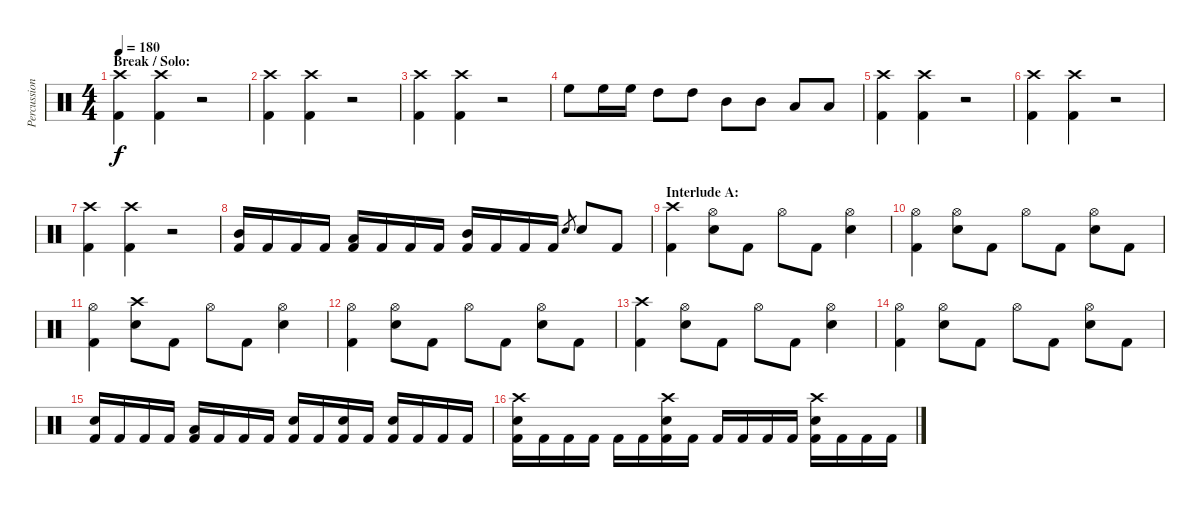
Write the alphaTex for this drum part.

\track ("Percussion" "Percussion") {instrument percussion}
\staff {score}
\articulation defaults
\ts (4 4)
\section ("" "Break / Solo:")
\tempo 180
\clef neutral
\ks c
("Crash high (hit)" "Kick (hit) 2").4{dy f} ("Crash high (hit)" "Kick (hit) 2").4 r.2 |
("Crash high (hit)" "Kick (hit) 2").4 ("Crash high (hit)" "Kick (hit) 2").4 r.2 |
("Crash high (hit)" "Kick (hit) 2").4 ("Crash high (hit)" "Kick (hit) 2").4 r.2 |
"High Floor Tom (hit)".8 "High Floor Tom (hit)".16 "High Floor Tom (hit)".16 "High Tom (hit)".8 "High Tom (hit)".8 "Mid Tom (hit)".8 "Mid Tom (hit)".8 "Low Tom (hit)".8 "Low Tom (hit)".8 |
("Crash high (hit)" "Kick (hit) 2").4 ("Crash high (hit)" "Kick (hit) 2").4 r.2 |
("Crash high (hit)" "Kick (hit) 2").4 ("Crash high (hit)" "Kick (hit) 2").4 r.2 |
("Crash high (hit)" "Kick (hit) 2").4 ("Crash high (hit)" "Kick (hit) 2").4 r.2 |
("Mid Tom (hit)" "Kick (hit) 2").16 "Kick (hit) 2".16 "Kick (hit) 2".16 "Kick (hit) 2".16 ("Low Tom (hit)" "Kick (hit) 2").16 "Kick (hit) 2".16 "Kick (hit) 2".16 "Kick (hit) 2".16 ("Mid Tom (hit)" "Kick (hit) 2").16 "Kick (hit) 2".16 "Kick (hit) 2".16 "Kick (hit) 2".16 "Snare (hit) 2".8{gr} "Snare (hit) 2".8 "Kick (hit) 2".8 |
\section ("" "Interlude A:")
("Crash high (hit)" "Kick (hit) 2").4 ("Hi-Hat (open)" "Snare (hit) 2").8 "Kick (hit) 2".8 "Hi-Hat (open)".8 "Kick (hit) 2".8 ("Hi-Hat (open)" "Snare (hit) 2").4 |
("Hi-Hat (open)" "Kick (hit) 2").4 ("Hi-Hat (open)" "Snare (hit) 2").8 "Kick (hit) 2".8 "Hi-Hat (open)".8 "Kick (hit) 2".8 ("Hi-Hat (open)" "Snare (hit) 2").8 "Kick (hit) 2".8 |
("Hi-Hat (open)" "Kick (hit) 2").4 ("Crash high (hit)" "Snare (hit) 2").8 "Kick (hit) 2".8 "Hi-Hat (open)".8 "Kick (hit) 2".8 ("Hi-Hat (open)" "Snare (hit) 2").4 |
("Hi-Hat (open)" "Kick (hit) 2").4 ("Hi-Hat (open)" "Snare (hit) 2").8 "Kick (hit) 2".8 "Hi-Hat (open)".8 "Kick (hit) 2".8 ("Hi-Hat (open)" "Snare (hit) 2").8 "Kick (hit) 2".8 |
("Crash high (hit)" "Kick (hit) 2").4 ("Hi-Hat (open)" "Snare (hit) 2").8 "Kick (hit) 2".8 "Hi-Hat (open)".8 "Kick (hit) 2".8 ("Hi-Hat (open)" "Snare (hit) 2").4 |
("Hi-Hat (open)" "Kick (hit) 2").4 ("Hi-Hat (open)" "Snare (hit) 2").8 "Kick (hit) 2".8 "Hi-Hat (open)".8 "Kick (hit) 2".8 ("Hi-Hat (open)" "Snare (hit) 2").8 "Kick (hit) 2".8 |
("Snare (hit) 2" "Kick (hit) 2").16 "Kick (hit) 2".16 "Kick (hit) 2".16 "Kick (hit) 2".16 ("Low Tom (hit)" "Kick (hit) 2").16 "Kick (hit) 2".16 "Kick (hit) 2".16 "Kick (hit) 2".16 ("Snare (hit) 2" "Kick (hit) 2").16 "Kick (hit) 2".16 ("Snare (hit) 2" "Kick (hit) 2").16 "Kick (hit) 2".16 ("Snare (hit) 2" "Kick (hit) 2").16 "Kick (hit) 2".16 "Kick (hit) 2".16 "Kick (hit) 2".16 |
("Crash high (hit)" "Snare (hit) 2" "Kick (hit) 2").16 "Kick (hit) 2".16 "Kick (hit) 2".16 "Kick (hit) 2".16 "Kick (hit) 2".16 "Kick (hit) 2".16 ("Crash high (hit)" "Snare (hit) 2" "Kick (hit) 2").16 "Kick (hit) 2".16 "Kick (hit) 2".16 "Kick (hit) 2".16 "Kick (hit) 2".16 "Kick (hit) 2".16 ("Crash high (hit)" "Snare (hit) 2" "Kick (hit) 2").16 "Kick (hit) 2".16 "Kick (hit) 2".16 "Kick (hit) 2".16
